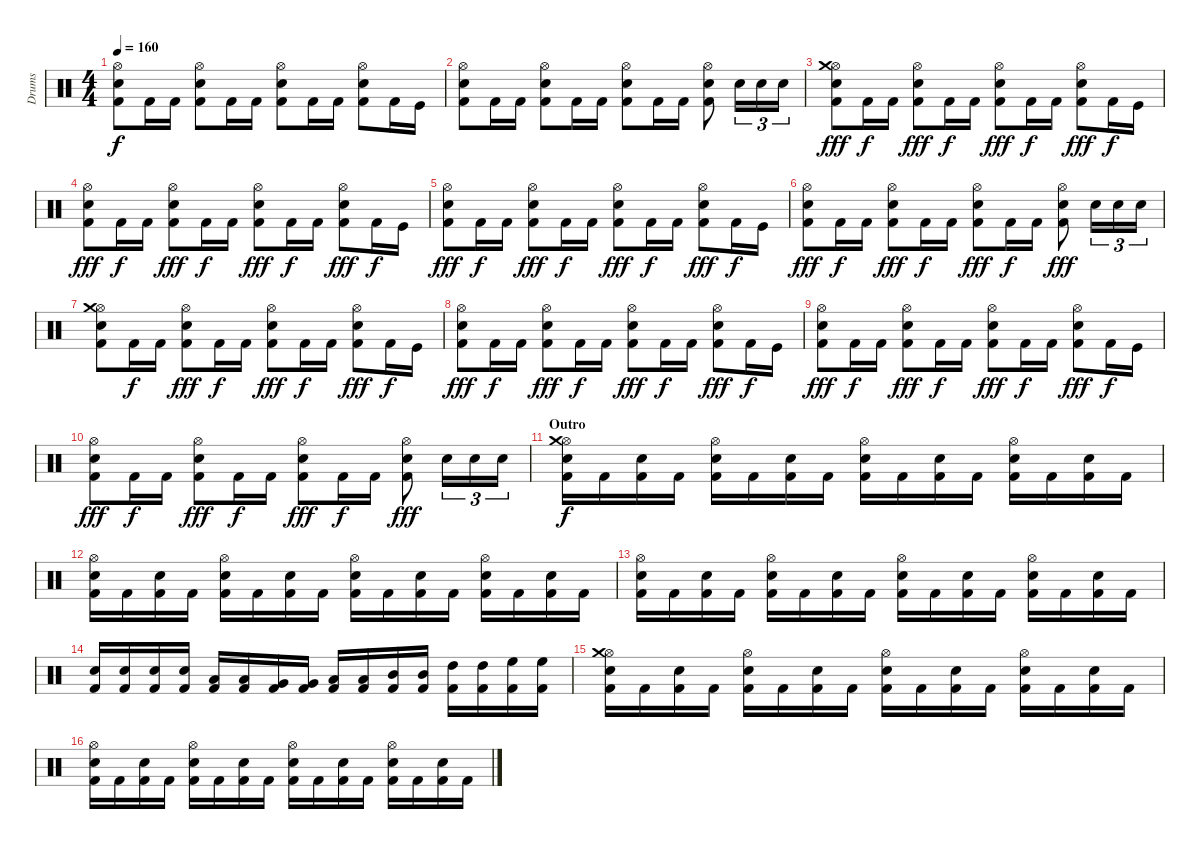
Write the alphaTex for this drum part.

\track ("Drums" "Drums") {instrument percussion}
\staff {score}
\articulation defaults
\ts (4 4)
\tempo 160
\clef neutral
\ks c
("Kick (hit) 2" "Snare (hit) 2" "Hi-Hat (open)").8{dy f} "Kick (hit) 2".16 "Kick (hit) 2".16 ("Kick (hit) 2" "Snare (hit) 2" "Hi-Hat (open)").8 "Kick (hit) 2".16 "Kick (hit) 2".16 ("Kick (hit) 2" "Snare (hit) 2" "Hi-Hat (open)").8 "Kick (hit) 2".16 "Kick (hit) 2".16 ("Kick (hit) 2" "Snare (hit) 2" "Hi-Hat (open)").8 "Kick (hit) 2".16 "Kick (hit)".16 |
("Kick (hit) 2" "Snare (hit) 2" "Hi-Hat (open)").8 "Kick (hit) 2".16 "Kick (hit) 2".16 ("Kick (hit) 2" "Snare (hit) 2" "Hi-Hat (open)").8 "Kick (hit) 2".16 "Kick (hit) 2".16 ("Kick (hit) 2" "Snare (hit) 2" "Hi-Hat (open)").8 "Kick (hit) 2".16 "Kick (hit) 2".16 ("Kick (hit) 2" "Snare (hit) 2" "Hi-Hat (open)").8 "Snare (hit) 2".16{tu (3 2)} "Snare (hit) 2".16{tu (3 2)} "Snare (hit) 2".16{tu (3 2)} |
("Kick (hit) 2" "Snare (hit) 2" "Hi-Hat (open)" "Crash medium (hit)").8{dy fff} "Kick (hit) 2".16{dy f} "Kick (hit) 2".16 ("Kick (hit) 2" "Snare (hit) 2" "Hi-Hat (open)").8{dy fff} "Kick (hit) 2".16{dy f} "Kick (hit) 2".16 ("Kick (hit) 2" "Snare (hit) 2" "Hi-Hat (open)").8{dy fff} "Kick (hit) 2".16{dy f} "Kick (hit) 2".16 ("Kick (hit) 2" "Snare (hit) 2" "Hi-Hat (open)").8{dy fff} "Kick (hit) 2".16{dy f} "Kick (hit)".16 |
("Kick (hit) 2" "Snare (hit) 2" "Hi-Hat (open)").8{dy fff} "Kick (hit) 2".16{dy f} "Kick (hit) 2".16 ("Kick (hit) 2" "Snare (hit) 2" "Hi-Hat (open)").8{dy fff} "Kick (hit) 2".16{dy f} "Kick (hit) 2".16 ("Kick (hit) 2" "Snare (hit) 2" "Hi-Hat (open)").8{dy fff} "Kick (hit) 2".16{dy f} "Kick (hit) 2".16 ("Kick (hit) 2" "Snare (hit) 2" "Hi-Hat (open)").8{dy fff} "Kick (hit) 2".16{dy f} "Kick (hit)".16 |
("Kick (hit) 2" "Snare (hit) 2" "Hi-Hat (open)").8{dy fff} "Kick (hit) 2".16{dy f} "Kick (hit) 2".16 ("Kick (hit) 2" "Snare (hit) 2" "Hi-Hat (open)").8{dy fff} "Kick (hit) 2".16{dy f} "Kick (hit) 2".16 ("Kick (hit) 2" "Snare (hit) 2" "Hi-Hat (open)").8{dy fff} "Kick (hit) 2".16{dy f} "Kick (hit) 2".16 ("Kick (hit) 2" "Snare (hit) 2" "Hi-Hat (open)").8{dy fff} "Kick (hit) 2".16{dy f} "Kick (hit)".16 |
("Kick (hit) 2" "Snare (hit) 2" "Hi-Hat (open)").8{dy fff} "Kick (hit) 2".16{dy f} "Kick (hit) 2".16 ("Kick (hit) 2" "Snare (hit) 2" "Hi-Hat (open)").8{dy fff} "Kick (hit) 2".16{dy f} "Kick (hit) 2".16 ("Kick (hit) 2" "Snare (hit) 2" "Hi-Hat (open)").8{dy fff} "Kick (hit) 2".16{dy f} "Kick (hit) 2".16 ("Kick (hit) 2" "Snare (hit) 2" "Hi-Hat (open)").8{dy fff} "Snare (hit) 2".16{tu (3 2)} "Snare (hit) 2".16{tu (3 2)} "Snare (hit) 2".16{tu (3 2)} |
("Kick (hit) 2" "Snare (hit) 2" "Hi-Hat (open)" "Crash medium (hit)").8 "Kick (hit) 2".16{dy f} "Kick (hit) 2".16 ("Kick (hit) 2" "Snare (hit) 2" "Hi-Hat (open)").8{dy fff} "Kick (hit) 2".16{dy f} "Kick (hit) 2".16 ("Kick (hit) 2" "Snare (hit) 2" "Hi-Hat (open)").8{dy fff} "Kick (hit) 2".16{dy f} "Kick (hit) 2".16 ("Kick (hit) 2" "Snare (hit) 2" "Hi-Hat (open)").8{dy fff} "Kick (hit) 2".16{dy f} "Kick (hit)".16 |
("Kick (hit) 2" "Snare (hit) 2" "Hi-Hat (open)").8{dy fff} "Kick (hit) 2".16{dy f} "Kick (hit) 2".16 ("Kick (hit) 2" "Snare (hit) 2" "Hi-Hat (open)").8{dy fff} "Kick (hit) 2".16{dy f} "Kick (hit) 2".16 ("Kick (hit) 2" "Snare (hit) 2" "Hi-Hat (open)").8{dy fff} "Kick (hit) 2".16{dy f} "Kick (hit) 2".16 ("Kick (hit) 2" "Snare (hit) 2" "Hi-Hat (open)").8{dy fff} "Kick (hit) 2".16{dy f} "Kick (hit)".16 |
("Kick (hit) 2" "Snare (hit) 2" "Hi-Hat (open)").8{dy fff} "Kick (hit) 2".16{dy f} "Kick (hit) 2".16 ("Kick (hit) 2" "Snare (hit) 2" "Hi-Hat (open)").8{dy fff} "Kick (hit) 2".16{dy f} "Kick (hit) 2".16 ("Kick (hit) 2" "Snare (hit) 2" "Hi-Hat (open)").8{dy fff} "Kick (hit) 2".16{dy f} "Kick (hit) 2".16 ("Kick (hit) 2" "Snare (hit) 2" "Hi-Hat (open)").8{dy fff} "Kick (hit) 2".16{dy f} "Kick (hit)".16 |
("Kick (hit) 2" "Snare (hit) 2" "Hi-Hat (open)").8{dy fff} "Kick (hit) 2".16{dy f} "Kick (hit) 2".16 ("Kick (hit) 2" "Snare (hit) 2" "Hi-Hat (open)").8{dy fff} "Kick (hit) 2".16{dy f} "Kick (hit) 2".16 ("Kick (hit) 2" "Snare (hit) 2" "Hi-Hat (open)").8{dy fff} "Kick (hit) 2".16{dy f} "Kick (hit) 2".16 ("Kick (hit) 2" "Snare (hit) 2" "Hi-Hat (open)").8{dy fff} "Snare (hit) 2".16{tu (3 2)} "Snare (hit) 2".16{tu (3 2)} "Snare (hit) 2".16{tu (3 2)} |
\section ("" "Outro")
("Kick (hit) 2" "Snare (hit) 2" "Hi-Hat (open)" "Crash medium (hit)").16{dy f} "Kick (hit) 2".16 ("Kick (hit) 2" "Snare (hit) 2").16 "Kick (hit) 2".16 ("Kick (hit) 2" "Snare (hit) 2" "Hi-Hat (open)").16 "Kick (hit) 2".16 ("Kick (hit) 2" "Snare (hit) 2").16 "Kick (hit) 2".16 ("Kick (hit) 2" "Snare (hit) 2" "Hi-Hat (open)").16 "Kick (hit) 2".16 ("Kick (hit) 2" "Snare (hit) 2").16 "Kick (hit) 2".16 ("Kick (hit) 2" "Snare (hit) 2" "Hi-Hat (open)").16 "Kick (hit) 2".16 ("Kick (hit) 2" "Snare (hit) 2").16 "Kick (hit) 2".16 |
("Kick (hit) 2" "Snare (hit) 2" "Hi-Hat (open)").16 "Kick (hit) 2".16 ("Kick (hit) 2" "Snare (hit) 2").16 "Kick (hit) 2".16 ("Kick (hit) 2" "Snare (hit) 2" "Hi-Hat (open)").16 "Kick (hit) 2".16 ("Kick (hit) 2" "Snare (hit) 2").16 "Kick (hit) 2".16 ("Kick (hit) 2" "Snare (hit) 2" "Hi-Hat (open)").16 "Kick (hit) 2".16 ("Kick (hit) 2" "Snare (hit) 2").16 "Kick (hit) 2".16 ("Kick (hit) 2" "Snare (hit) 2" "Hi-Hat (open)").16 "Kick (hit) 2".16 ("Kick (hit) 2" "Snare (hit) 2").16 "Kick (hit) 2".16 |
("Kick (hit) 2" "Snare (hit) 2" "Hi-Hat (open)").16 "Kick (hit) 2".16 ("Kick (hit) 2" "Snare (hit) 2").16 "Kick (hit) 2".16 ("Kick (hit) 2" "Snare (hit) 2" "Hi-Hat (open)").16 "Kick (hit) 2".16 ("Kick (hit) 2" "Snare (hit) 2").16 "Kick (hit) 2".16 ("Kick (hit) 2" "Snare (hit) 2" "Hi-Hat (open)").16 "Kick (hit) 2".16 ("Kick (hit) 2" "Snare (hit) 2").16 "Kick (hit) 2".16 ("Kick (hit) 2" "Snare (hit) 2" "Hi-Hat (open)").16 "Kick (hit) 2".16 ("Kick (hit) 2" "Snare (hit) 2").16 "Kick (hit) 2".16 |
("Kick (hit) 2" "Snare (hit) 2").16 ("Kick (hit) 2" "Snare (hit) 2").16 ("Kick (hit) 2" "Snare (hit) 2").16 ("Kick (hit) 2" "Snare (hit) 2").16 ("Kick (hit) 2" "Low Floor Tom (hit)").16 ("Kick (hit) 2" "Low Floor Tom (hit)").16 ("Kick (hit) 2" "Very Low Tom (hit)").16 ("Kick (hit) 2" "Very Low Tom (hit)").16 ("Kick (hit) 2" "Low Tom (hit)").16 ("Kick (hit) 2" "Low Tom (hit)").16 ("Kick (hit) 2" "Mid Tom (hit)").16 ("Kick (hit) 2" "Mid Tom (hit)").16 ("Kick (hit) 2" "High Tom (hit)").16 ("Kick (hit) 2" "High Tom (hit)").16 ("Kick (hit) 2" "High Floor Tom (hit)").16 ("Kick (hit) 2" "High Floor Tom (hit)").16 |
("Kick (hit) 2" "Snare (hit) 2" "Hi-Hat (open)" "Crash medium (hit)").16 "Kick (hit) 2".16 ("Kick (hit) 2" "Snare (hit) 2").16 "Kick (hit) 2".16 ("Kick (hit) 2" "Snare (hit) 2" "Hi-Hat (open)").16 "Kick (hit) 2".16 ("Kick (hit) 2" "Snare (hit) 2").16 "Kick (hit) 2".16 ("Kick (hit) 2" "Snare (hit) 2" "Hi-Hat (open)").16 "Kick (hit) 2".16 ("Kick (hit) 2" "Snare (hit) 2").16 "Kick (hit) 2".16 ("Kick (hit) 2" "Snare (hit) 2" "Hi-Hat (open)").16 "Kick (hit) 2".16 ("Kick (hit) 2" "Snare (hit) 2").16 "Kick (hit) 2".16 |
("Kick (hit) 2" "Snare (hit) 2" "Hi-Hat (open)").16 "Kick (hit) 2".16 ("Kick (hit) 2" "Snare (hit) 2").16 "Kick (hit) 2".16 ("Kick (hit) 2" "Snare (hit) 2" "Hi-Hat (open)").16 "Kick (hit) 2".16 ("Kick (hit) 2" "Snare (hit) 2").16 "Kick (hit) 2".16 ("Kick (hit) 2" "Snare (hit) 2" "Hi-Hat (open)").16 "Kick (hit) 2".16 ("Kick (hit) 2" "Snare (hit) 2").16 "Kick (hit) 2".16 ("Kick (hit) 2" "Snare (hit) 2" "Hi-Hat (open)").16 "Kick (hit) 2".16 ("Kick (hit) 2" "Snare (hit) 2").16 "Kick (hit) 2".16
